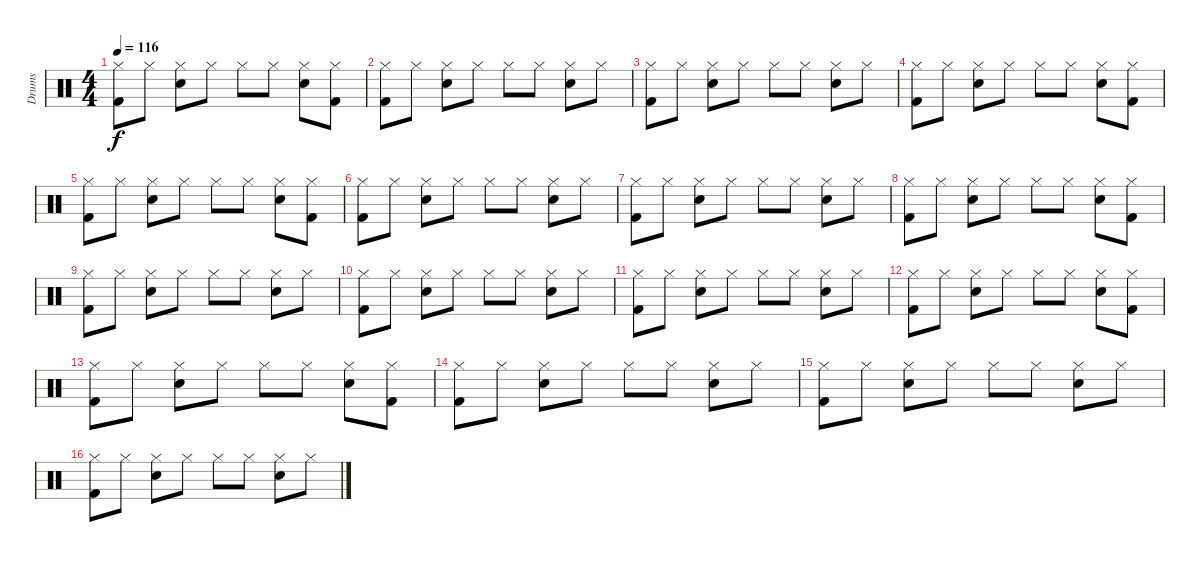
\track ("Drums" "Drums") {instrument percussion}
\staff {score}
\articulation defaults
\ts (4 4)
\tempo 116
\clef neutral
\ks c
("Kick (hit) 2" "Hi-Hat (closed)").8{dy f} "Hi-Hat (closed)".8 ("Snare (hit) 2" "Hi-Hat (closed)").8 "Hi-Hat (closed)".8 "Hi-Hat (closed)".8 "Hi-Hat (closed)".8 ("Snare (hit) 2" "Hi-Hat (closed)").8 ("Kick (hit) 2" "Hi-Hat (closed)").8 |
("Kick (hit) 2" "Hi-Hat (closed)").8 "Hi-Hat (closed)".8 ("Snare (hit) 2" "Hi-Hat (closed)").8 "Hi-Hat (closed)".8 "Hi-Hat (closed)".8 "Hi-Hat (closed)".8 ("Snare (hit) 2" "Hi-Hat (closed)").8 "Hi-Hat (closed)".8 |
("Kick (hit) 2" "Hi-Hat (closed)").8 "Hi-Hat (closed)".8 ("Snare (hit) 2" "Hi-Hat (closed)").8 "Hi-Hat (closed)".8 "Hi-Hat (closed)".8 "Hi-Hat (closed)".8 ("Snare (hit) 2" "Hi-Hat (closed)").8 "Hi-Hat (closed)".8 |
("Kick (hit) 2" "Hi-Hat (closed)").8 "Hi-Hat (closed)".8 ("Snare (hit) 2" "Hi-Hat (closed)").8 "Hi-Hat (closed)".8 "Hi-Hat (closed)".8 "Hi-Hat (closed)".8 ("Snare (hit) 2" "Hi-Hat (closed)").8 ("Kick (hit) 2" "Hi-Hat (closed)").8 |
("Kick (hit) 2" "Hi-Hat (closed)").8 "Hi-Hat (closed)".8 ("Snare (hit) 2" "Hi-Hat (closed)").8 "Hi-Hat (closed)".8 "Hi-Hat (closed)".8 "Hi-Hat (closed)".8 ("Snare (hit) 2" "Hi-Hat (closed)").8 ("Kick (hit) 2" "Hi-Hat (closed)").8 |
("Kick (hit) 2" "Hi-Hat (closed)").8 "Hi-Hat (closed)".8 ("Snare (hit) 2" "Hi-Hat (closed)").8 "Hi-Hat (closed)".8 "Hi-Hat (closed)".8 "Hi-Hat (closed)".8 ("Snare (hit) 2" "Hi-Hat (closed)").8 "Hi-Hat (closed)".8 |
("Kick (hit) 2" "Hi-Hat (closed)").8 "Hi-Hat (closed)".8 ("Snare (hit) 2" "Hi-Hat (closed)").8 "Hi-Hat (closed)".8 "Hi-Hat (closed)".8 "Hi-Hat (closed)".8 ("Snare (hit) 2" "Hi-Hat (closed)").8 "Hi-Hat (closed)".8 |
("Kick (hit) 2" "Hi-Hat (closed)").8 "Hi-Hat (closed)".8 ("Snare (hit) 2" "Hi-Hat (closed)").8 "Hi-Hat (closed)".8 "Hi-Hat (closed)".8 "Hi-Hat (closed)".8 ("Snare (hit) 2" "Hi-Hat (closed)").8 ("Kick (hit) 2" "Hi-Hat (closed)").8 |
("Kick (hit) 2" "Hi-Hat (closed)").8 "Hi-Hat (closed)".8 ("Snare (hit) 2" "Hi-Hat (closed)").8 "Hi-Hat (closed)".8 "Hi-Hat (closed)".8 "Hi-Hat (closed)".8 ("Snare (hit) 2" "Hi-Hat (closed)").8 "Hi-Hat (closed)".8 |
("Kick (hit) 2" "Hi-Hat (closed)").8 "Hi-Hat (closed)".8 ("Snare (hit) 2" "Hi-Hat (closed)").8 "Hi-Hat (closed)".8 "Hi-Hat (closed)".8 "Hi-Hat (closed)".8 ("Snare (hit) 2" "Hi-Hat (closed)").8 "Hi-Hat (closed)".8 |
("Kick (hit) 2" "Hi-Hat (closed)").8 "Hi-Hat (closed)".8 ("Snare (hit) 2" "Hi-Hat (closed)").8 "Hi-Hat (closed)".8 "Hi-Hat (closed)".8 "Hi-Hat (closed)".8 ("Snare (hit) 2" "Hi-Hat (closed)").8 "Hi-Hat (closed)".8 |
("Kick (hit) 2" "Hi-Hat (closed)").8 "Hi-Hat (closed)".8 ("Snare (hit) 2" "Hi-Hat (closed)").8 "Hi-Hat (closed)".8 "Hi-Hat (closed)".8 "Hi-Hat (closed)".8 ("Snare (hit) 2" "Hi-Hat (closed)").8 ("Kick (hit) 2" "Hi-Hat (closed)").8 |
("Kick (hit) 2" "Hi-Hat (closed)").8 "Hi-Hat (closed)".8 ("Snare (hit) 2" "Hi-Hat (closed)").8 "Hi-Hat (closed)".8 "Hi-Hat (closed)".8 "Hi-Hat (closed)".8 ("Snare (hit) 2" "Hi-Hat (closed)").8 ("Kick (hit) 2" "Hi-Hat (closed)").8 |
("Kick (hit) 2" "Hi-Hat (closed)").8 "Hi-Hat (closed)".8 ("Snare (hit) 2" "Hi-Hat (closed)").8 "Hi-Hat (closed)".8 "Hi-Hat (closed)".8 "Hi-Hat (closed)".8 ("Snare (hit) 2" "Hi-Hat (closed)").8 "Hi-Hat (closed)".8 |
("Kick (hit) 2" "Hi-Hat (closed)").8 "Hi-Hat (closed)".8 ("Snare (hit) 2" "Hi-Hat (closed)").8 "Hi-Hat (closed)".8 "Hi-Hat (closed)".8 "Hi-Hat (closed)".8 ("Snare (hit) 2" "Hi-Hat (closed)").8 "Hi-Hat (closed)".8 |
("Kick (hit) 2" "Hi-Hat (closed)").8 "Hi-Hat (closed)".8 ("Snare (hit) 2" "Hi-Hat (closed)").8 "Hi-Hat (closed)".8 "Hi-Hat (closed)".8 "Hi-Hat (closed)".8 ("Snare (hit) 2" "Hi-Hat (closed)").8 "Hi-Hat (closed)".8
